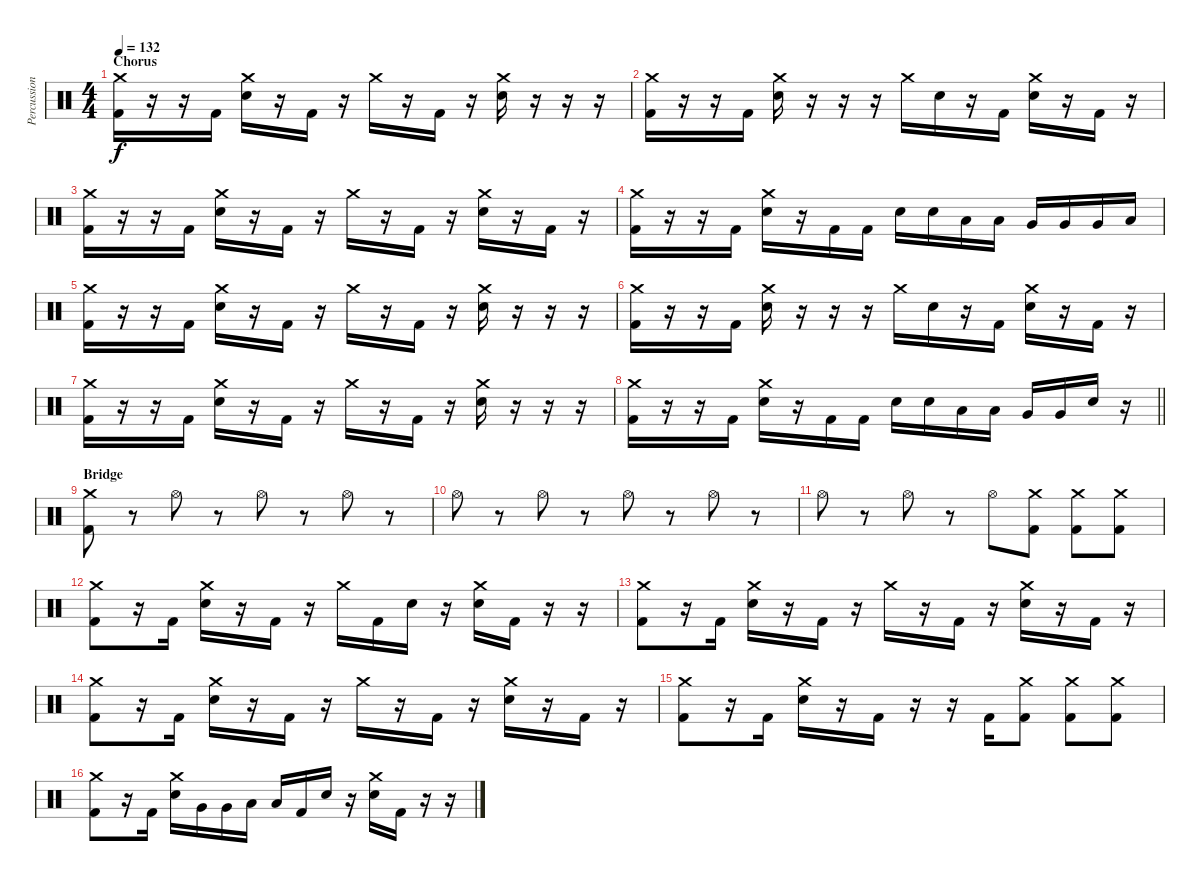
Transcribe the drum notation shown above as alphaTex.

\track ("Percussion" "Percussion") {instrument percussion}
\staff {score}
\articulation defaults
\ts (4 4)
\section ("" "Chorus")
\tempo 132
\clef neutral
\ks c
("Crash medium (hit)" "Kick (hit) 2").16{dy f} r.16 r.16 "Kick (hit) 2".16 ("Crash medium (hit)" "Electric Snare (hit)").16 r.16 "Kick (hit) 2".16 r.16 "Crash medium (hit)".16 r.16 "Kick (hit) 2".16 r.16 ("Crash medium (hit)" "Electric Snare (hit)").16 r.16 r.16 r.16 |
("Crash medium (hit)" "Kick (hit) 2").16 r.16 r.16 "Kick (hit) 2".16 ("Crash medium (hit)" "Electric Snare (hit)").16 r.16 r.16 r.16 "Crash medium (hit)".16 "Electric Snare (hit)".16 r.16 "Kick (hit) 2".16 ("Crash medium (hit)" "Electric Snare (hit)").16 r.16 "Kick (hit) 2".16 r.16 |
("Crash medium (hit)" "Kick (hit) 2").16 r.16 r.16 "Kick (hit) 2".16 ("Crash medium (hit)" "Electric Snare (hit)").16 r.16 "Kick (hit) 2".16 r.16 "Crash medium (hit)".16 r.16 "Kick (hit) 2".16 r.16 ("Crash medium (hit)" "Electric Snare (hit)").16 r.16 "Kick (hit) 2".16 r.16 |
("Crash medium (hit)" "Kick (hit) 2").16 r.16 r.16 "Kick (hit) 2".16 ("Crash medium (hit)" "Electric Snare (hit)").16 r.16 "Kick (hit) 2".16 "Kick (hit) 2".16 "Electric Snare (hit)".16 "Electric Snare (hit)".16 "Low Tom (hit)".16 "Low Tom (hit)".16 "Very Low Tom (hit)".16 "Very Low Tom (hit)".16 "Very Low Tom (hit)".16 "Low Tom (hit)".16 |
("Crash medium (hit)" "Kick (hit) 2").16 r.16 r.16 "Kick (hit) 2".16 ("Crash medium (hit)" "Electric Snare (hit)").16 r.16 "Kick (hit) 2".16 r.16 "Crash medium (hit)".16 r.16 "Kick (hit) 2".16 r.16 ("Crash medium (hit)" "Electric Snare (hit)").16 r.16 r.16 r.16 |
("Crash medium (hit)" "Kick (hit) 2").16 r.16 r.16 "Kick (hit) 2".16 ("Crash medium (hit)" "Electric Snare (hit)").16 r.16 r.16 r.16 "Crash medium (hit)".16 "Electric Snare (hit)".16 r.16 "Kick (hit) 2".16 ("Crash medium (hit)" "Electric Snare (hit)").16 r.16 "Kick (hit) 2".16 r.16 |
("Crash medium (hit)" "Kick (hit) 2").16 r.16 r.16 "Kick (hit) 2".16 ("Crash medium (hit)" "Electric Snare (hit)").16 r.16 "Kick (hit) 2".16 r.16 "Crash medium (hit)".16 r.16 "Kick (hit) 2".16 r.16 ("Crash medium (hit)" "Electric Snare (hit)").16 r.16 r.16 r.16 |
\barLineRight lightlight
("Crash medium (hit)" "Kick (hit) 2").16 r.16 r.16 "Kick (hit) 2".16 ("Crash medium (hit)" "Electric Snare (hit)").16 r.16 "Kick (hit) 2".16 "Kick (hit) 2".16 "Electric Snare (hit)".16 "Electric Snare (hit)".16 "Low Tom (hit)".16 "Low Tom (hit)".16 "Very Low Tom (hit)".16 "Very Low Tom (hit)".16 "Electric Snare (hit)".16 r.16 |
\section ("" "Bridge")
("Crash medium (hit)" "Kick (hit) 2").8 r.8 "Hi-Hat (open)".8 r.8 "Hi-Hat (open)".8 r.8 "Hi-Hat (open)".8 r.8 |
"Hi-Hat (open)".8 r.8 "Hi-Hat (open)".8 r.8 "Hi-Hat (open)".8 r.8 "Hi-Hat (open)".8 r.8 |
"Hi-Hat (open)".8 r.8 "Hi-Hat (open)".8 r.8 "Hi-Hat (open)".8 ("Crash medium (hit)" "Kick (hit) 2").8 ("Crash medium (hit)" "Kick (hit) 2").8 ("Crash medium (hit)" "Kick (hit) 2").8 |
("Crash medium (hit)" "Kick (hit) 2").8 r.16 "Kick (hit) 2".16 ("Crash medium (hit)" "Electric Snare (hit)").16 r.16 "Kick (hit) 2".16 r.16 "Crash medium (hit)".16 "Kick (hit) 2".16 "Electric Snare (hit)".16 r.16 ("Crash medium (hit)" "Electric Snare (hit)").16 "Kick (hit) 2".16 r.16 r.16 |
("Crash medium (hit)" "Kick (hit) 2").8 r.16 "Kick (hit) 2".16 ("Crash medium (hit)" "Electric Snare (hit)").16 r.16 "Kick (hit) 2".16 r.16 "Crash medium (hit)".16 r.16 "Kick (hit) 2".16 r.16 ("Crash medium (hit)" "Electric Snare (hit)").16 r.16 "Kick (hit) 2".16 r.16 |
("Crash medium (hit)" "Kick (hit) 2").8 r.16 "Kick (hit) 2".16 ("Crash medium (hit)" "Electric Snare (hit)").16 r.16 "Kick (hit) 2".16 r.16 "Crash medium (hit)".16 r.16 "Kick (hit) 2".16 r.16 ("Crash medium (hit)" "Electric Snare (hit)").16 r.16 "Kick (hit) 2".16 r.16 |
("Crash medium (hit)" "Kick (hit) 2").8 r.16 "Kick (hit) 2".16 ("Crash medium (hit)" "Electric Snare (hit)").16 r.16 "Kick (hit) 2".16 r.16 r.16 "Kick (hit) 2".16 ("Crash medium (hit)" "Kick (hit) 2").8 ("Crash medium (hit)" "Kick (hit) 2").8 ("Crash medium (hit)" "Kick (hit) 2").8 |
("Crash medium (hit)" "Kick (hit) 2").8 r.16 "Kick (hit) 2".16 ("Crash medium (hit)" "Electric Snare (hit)").16 "Very Low Tom (hit)".16 "Very Low Tom (hit)".16 "Low Tom (hit)".16 "Low Tom (hit)".16 "Kick (hit) 2".16 "Electric Snare (hit)".16 r.16 ("Crash medium (hit)" "Electric Snare (hit)").16 "Kick (hit) 2".16 r.16 r.16
